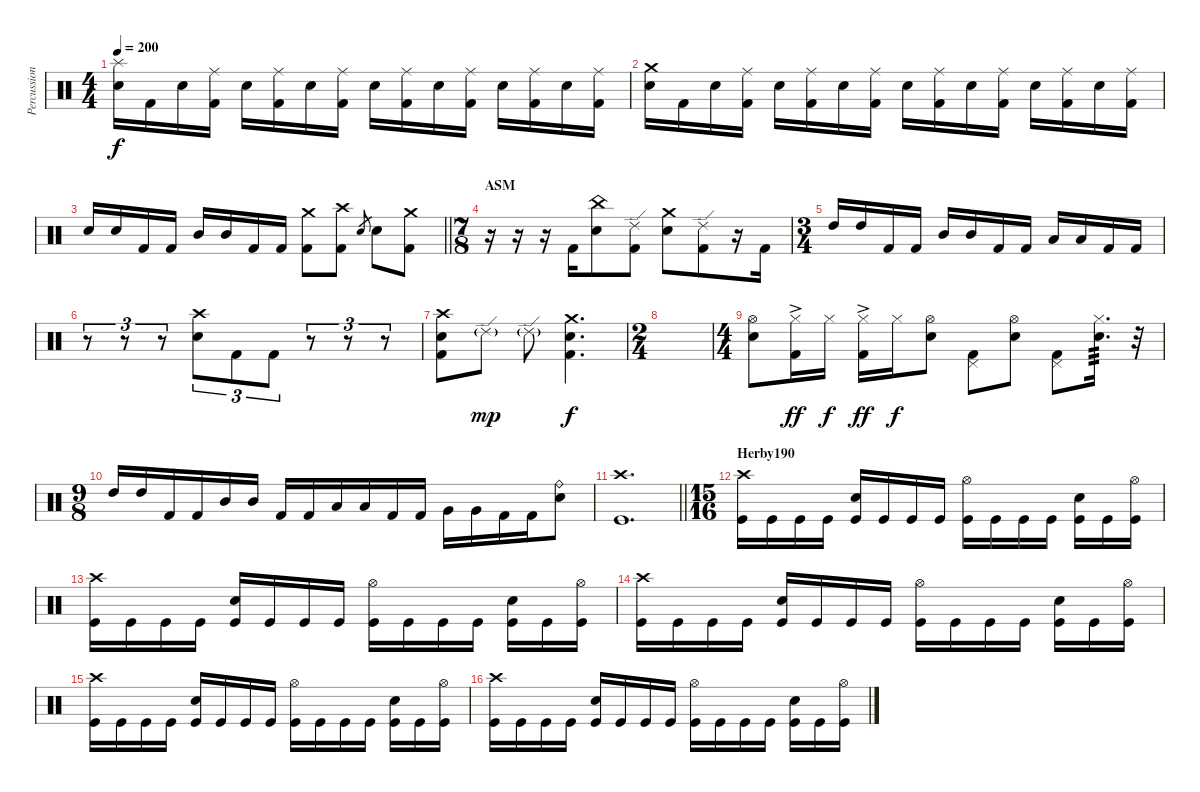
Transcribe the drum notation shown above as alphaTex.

\track ("Percussion" "Percussion") {instrument percussion}
\staff {score}
\articulation defaults
\ts (4 4)
\tempo 200
\clef neutral
\ks c
("Splash (hit)" "Electric Snare (hit)").16{dy f} "Kick (hit) 2".16 "Electric Snare (hit)".16 ("Ride (middle)" "Kick (hit) 2").16 "Electric Snare (hit)".16 ("Ride (middle)" "Kick (hit) 2").16 "Electric Snare (hit)".16 ("Ride (middle)" "Kick (hit) 2").16 "Electric Snare (hit)".16 ("Ride (middle)" "Kick (hit) 2").16 "Electric Snare (hit)".16 ("Ride (middle)" "Kick (hit) 2").16 "Electric Snare (hit)".16 ("Ride (middle)" "Kick (hit) 2").16 "Electric Snare (hit)".16 ("Ride (middle)" "Kick (hit) 2").16 |
("Crash medium (hit)" "Electric Snare (hit)").16 "Kick (hit) 2".16 "Electric Snare (hit)".16 ("Ride (middle)" "Kick (hit) 2").16 "Electric Snare (hit)".16 ("Ride (middle)" "Kick (hit) 2").16 "Electric Snare (hit)".16 ("Ride (middle)" "Kick (hit) 2").16 "Electric Snare (hit)".16 ("Ride (middle)" "Kick (hit) 2").16 "Electric Snare (hit)".16 ("Ride (middle)" "Kick (hit) 2").16 "Electric Snare (hit)".16 ("Ride (middle)" "Kick (hit) 2").16 "Electric Snare (hit)".16 ("Ride (middle)" "Kick (hit) 2").16 |
\barLineRight lightlight "Electric Snare (hit)".16 "Electric Snare (hit)".16 "Kick (hit) 2".16 "Kick (hit) 2".16 "Mid Tom (hit)".16 "Mid Tom (hit)".16 "Kick (hit) 2".16 "Kick (hit) 2".16
("Crash medium (hit)" "Kick (hit) 2").8 ("Crash high (hit)" "Kick (hit) 2").8 "Electric Snare (hit)".8{gr} "Electric Snare (hit)".8 ("Crash medium (hit)" "Kick (hit) 2").8 |
\ts (7 8)
\section ("" "ASM")
r.16 r.16 r.16 "Kick (hit) 2".16 ("China (hit)" "Electric Snare (hit)").8 ("Ride (edge) 2" "Kick (hit) 2").8 ("Crash medium (hit)" "Electric Snare (hit)").8 ("Ride (edge) 2" "Kick (hit) 2").8 r.16 "Kick (hit) 2".16 |
\ts (3 4)
"High Tom (hit)".16 "High Tom (hit)".16 "Kick (hit) 2".16 "Kick (hit) 2".16 "Mid Tom (hit)".16 "Mid Tom (hit)".16 "Kick (hit) 2".16 "Kick (hit) 2".16 "Low Tom (hit)".16 "Low Tom (hit)".16 "Kick (hit) 2".16 "Kick (hit) 2".16 |
r.8{tu (3 2)} r.8{tu (3 2)} r.8{tu (3 2)} ("Crash high (hit)" "Electric Snare (hit)").8{tu (3 2)} "Kick (hit) 2".8{tu (3 2)} "Kick (hit) 2".8{tu (3 2)} r.8{tu (3 2)} r.8{tu (3 2)} r.8{tu (3 2)} |
("Crash high (hit)" "Electric Snare (hit)" "Kick (hit) 2").8 "Ride (edge) 2"{g}.8{dy mp} "Ride (edge) 2"{g}.8 ("Crash medium (hit)" "Electric Snare (hit)" "Kick (hit) 2").4{d dy f} |
\ts (2 4)
|
\ts (4 4)
("Hi-Hat (open)" "Electric Snare (hit)").8 ("Hi-Hat (closed)"{ac} "Kick (hit) 2").16{dy ff} "Hi-Hat (closed)".16{dy f} ("Hi-Hat (closed)"{ac} "Kick (hit) 2").16{dy ff} "Hi-Hat (closed)".16{dy f} ("Hi-Hat (open)" "Electric Snare (hit)").8 ("Pedal Hi-Hat (hit)" "Kick (hit) 2").8 ("Hi-Hat (open)" "Electric Snare (hit)").8 ("Pedal Hi-Hat (hit)" "Kick (hit) 2").8 ("Hi-Hat (closed)" "Electric Snare (hit)").16{d tp 3} r.32 |
\ts (9 8)
"High Tom (hit)".16 "High Tom (hit)".16 "Kick (hit) 2".16 "Kick (hit) 2".16 "Mid Tom (hit)".16 "Mid Tom (hit)".16 "Kick (hit) 2".16 "Kick (hit) 2".16 "Low Tom (hit)".16 "Low Tom (hit)".16 "Kick (hit) 2".16 "Kick (hit) 2".16 "Very Low Tom (hit)".16 "Very Low Tom (hit)".16 "Kick (hit) 2".16 "Kick (hit) 2".16 ("Ride (bell)" "Electric Snare (hit)").8 |
\barLineRight lightlight
("Crash high (hit)" "Kick (hit)").1{d} |
\ts (15 16)
\section ("" "Herby190")
("Crash high (hit)" "Kick (hit)").16 "Kick (hit)".16 "Kick (hit)".16 "Kick (hit)".16 ("Snare (hit) 2" "Kick (hit)").16 "Kick (hit)".16 "Kick (hit)".16 "Kick (hit)".16 ("Hi-Hat (open)" "Kick (hit)").16 "Kick (hit)".16 "Kick (hit)".16 "Kick (hit)".16 ("Snare (hit) 2" "Kick (hit)").16 "Kick (hit)".16 ("Hi-Hat (open)" "Kick (hit)").16 |
("Crash high (hit)" "Kick (hit)").16 "Kick (hit)".16 "Kick (hit)".16 "Kick (hit)".16 ("Snare (hit) 2" "Kick (hit)").16 "Kick (hit)".16 "Kick (hit)".16 "Kick (hit)".16 ("Hi-Hat (open)" "Kick (hit)").16 "Kick (hit)".16 "Kick (hit)".16 "Kick (hit)".16 ("Snare (hit) 2" "Kick (hit)").16 "Kick (hit)".16 ("Hi-Hat (open)" "Kick (hit)").16 |
("Crash high (hit)" "Kick (hit)").16 "Kick (hit)".16 "Kick (hit)".16 "Kick (hit)".16 ("Snare (hit) 2" "Kick (hit)").16 "Kick (hit)".16 "Kick (hit)".16 "Kick (hit)".16 ("Hi-Hat (open)" "Kick (hit)").16 "Kick (hit)".16 "Kick (hit)".16 "Kick (hit)".16 ("Snare (hit) 2" "Kick (hit)").16 "Kick (hit)".16 ("Hi-Hat (open)" "Kick (hit)").16 |
("Crash high (hit)" "Kick (hit)").16 "Kick (hit)".16 "Kick (hit)".16 "Kick (hit)".16 ("Snare (hit) 2" "Kick (hit)").16 "Kick (hit)".16 "Kick (hit)".16 "Kick (hit)".16 ("Hi-Hat (open)" "Kick (hit)").16 "Kick (hit)".16 "Kick (hit)".16 "Kick (hit)".16 ("Snare (hit) 2" "Kick (hit)").16 "Kick (hit)".16 ("Hi-Hat (open)" "Kick (hit)").16 |
("Crash high (hit)" "Kick (hit)").16 "Kick (hit)".16 "Kick (hit)".16 "Kick (hit)".16 ("Snare (hit) 2" "Kick (hit)").16 "Kick (hit)".16 "Kick (hit)".16 "Kick (hit)".16 ("Hi-Hat (open)" "Kick (hit)").16 "Kick (hit)".16 "Kick (hit)".16 "Kick (hit)".16 ("Snare (hit) 2" "Kick (hit)").16 "Kick (hit)".16 ("Hi-Hat (open)" "Kick (hit)").16
